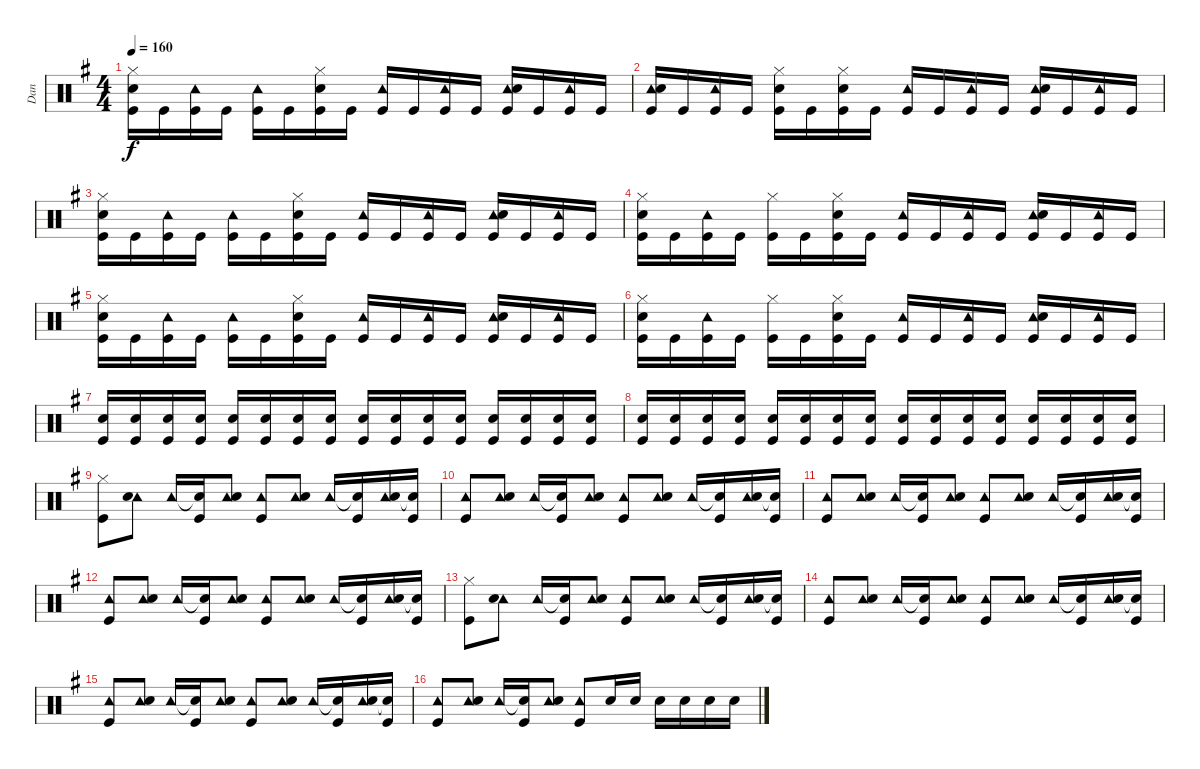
\track ("Dan" "Dan") {instrument percussion}
\staff {score}
\articulation defaults
\ts (4 4)
\tempo 160
\clef neutral
\ks g
("Hi-Hat (closed)" "Snare (hit) 2" "Kick (hit)").16{dy f} "Kick (hit)".16 ("Tambourine (hit)" "Kick (hit)").16 "Kick (hit)".16 ("Tambourine (hit)" "Kick (hit)").16 "Kick (hit)".16 ("Hi-Hat (closed)" "Snare (hit) 2" "Kick (hit)").16 "Kick (hit)".16 ("Tambourine (hit)" "Kick (hit)").16 "Kick (hit)".16 ("Tambourine (hit)" "Kick (hit)").16 "Kick (hit)".16 ("Tambourine (hit)" "Snare (hit) 2" "Kick (hit)").16 "Kick (hit)".16 ("Tambourine (hit)" "Kick (hit)").16 "Kick (hit)".16 |
("Tambourine (hit)" "Snare (hit) 2" "Kick (hit)").16 "Kick (hit)".16 ("Tambourine (hit)" "Kick (hit)").16 "Kick (hit)".16 ("Hi-Hat (closed)" "Snare (hit) 2" "Kick (hit)").16 "Kick (hit)".16 ("Hi-Hat (closed)" "Snare (hit) 2" "Kick (hit)").16 "Kick (hit)".16 ("Tambourine (hit)" "Kick (hit)").16 "Kick (hit)".16 ("Tambourine (hit)" "Kick (hit)").16 "Kick (hit)".16 ("Tambourine (hit)" "Snare (hit) 2" "Kick (hit)").16 "Kick (hit)".16 ("Tambourine (hit)" "Kick (hit)").16 "Kick (hit)".16 |
("Hi-Hat (closed)" "Snare (hit) 2" "Kick (hit)").16 "Kick (hit)".16 ("Tambourine (hit)" "Kick (hit)").16 "Kick (hit)".16 ("Tambourine (hit)" "Kick (hit)").16 "Kick (hit)".16 ("Hi-Hat (closed)" "Snare (hit) 2" "Kick (hit)").16 "Kick (hit)".16 ("Tambourine (hit)" "Kick (hit)").16 "Kick (hit)".16 ("Tambourine (hit)" "Kick (hit)").16 "Kick (hit)".16 ("Tambourine (hit)" "Snare (hit) 2" "Kick (hit)").16 "Kick (hit)".16 ("Tambourine (hit)" "Kick (hit)").16 "Kick (hit)".16 |
("Hi-Hat (closed)" "Snare (hit) 2" "Kick (hit)").16 "Kick (hit)".16 ("Tambourine (hit)" "Kick (hit)").16 "Kick (hit)".16 ("Hi-Hat (closed)" "Kick (hit)").16 "Kick (hit)".16 ("Hi-Hat (closed)" "Snare (hit) 2" "Kick (hit)").16 "Kick (hit)".16 ("Tambourine (hit)" "Kick (hit)").16 "Kick (hit)".16 ("Tambourine (hit)" "Kick (hit)").16 "Kick (hit)".16 ("Tambourine (hit)" "Snare (hit) 2" "Kick (hit)").16 "Kick (hit)".16 ("Tambourine (hit)" "Kick (hit)").16 "Kick (hit)".16 |
("Hi-Hat (closed)" "Snare (hit) 2" "Kick (hit)").16 "Kick (hit)".16 ("Tambourine (hit)" "Kick (hit)").16 "Kick (hit)".16 ("Tambourine (hit)" "Kick (hit)").16 "Kick (hit)".16 ("Hi-Hat (closed)" "Snare (hit) 2" "Kick (hit)").16 "Kick (hit)".16 ("Tambourine (hit)" "Kick (hit)").16 "Kick (hit)".16 ("Tambourine (hit)" "Kick (hit)").16 "Kick (hit)".16 ("Tambourine (hit)" "Snare (hit) 2" "Kick (hit)").16 "Kick (hit)".16 ("Tambourine (hit)" "Kick (hit)").16 "Kick (hit)".16 |
("Hi-Hat (closed)" "Snare (hit) 2" "Kick (hit)").16 "Kick (hit)".16 ("Tambourine (hit)" "Kick (hit)").16 "Kick (hit)".16 ("Hi-Hat (closed)" "Kick (hit)").16 "Kick (hit)".16 ("Hi-Hat (closed)" "Snare (hit) 2" "Kick (hit)").16 "Kick (hit)".16 ("Tambourine (hit)" "Kick (hit)").16 "Kick (hit)".16 ("Tambourine (hit)" "Kick (hit)").16 "Kick (hit)".16 ("Tambourine (hit)" "Snare (hit) 2" "Kick (hit)").16 "Kick (hit)".16 ("Tambourine (hit)" "Kick (hit)").16 "Kick (hit)".16 |
("Snare (hit) 2" "Kick (hit)").16 ("Snare (hit) 2" "Kick (hit)").16 ("Snare (hit) 2" "Kick (hit)").16 ("Snare (hit) 2" "Kick (hit)").16 ("Snare (hit) 2" "Kick (hit)").16 ("Snare (hit) 2" "Kick (hit)").16 ("Snare (hit) 2" "Kick (hit)").16 ("Snare (hit) 2" "Kick (hit)").16 ("Snare (hit) 2" "Kick (hit)").16 ("Snare (hit) 2" "Kick (hit)").16 ("Snare (hit) 2" "Kick (hit)").16 ("Snare (hit) 2" "Kick (hit)").16 ("Snare (hit) 2" "Kick (hit)").16 ("Snare (hit) 2" "Kick (hit)").16 ("Snare (hit) 2" "Kick (hit)").16 ("Snare (hit) 2" "Kick (hit)").16 |
("Snare (hit) 2" "Kick (hit)").16 ("Snare (hit) 2" "Kick (hit)").16 ("Snare (hit) 2" "Kick (hit)").16 ("Snare (hit) 2" "Kick (hit)").16 ("Snare (hit) 2" "Kick (hit)").16 ("Snare (hit) 2" "Kick (hit)").16 ("Snare (hit) 2" "Kick (hit)").16 ("Snare (hit) 2" "Kick (hit)").16 ("Snare (hit) 2" "Kick (hit)").16 ("Snare (hit) 2" "Kick (hit)").16 ("Snare (hit) 2" "Kick (hit)").16 ("Snare (hit) 2" "Kick (hit)").16 ("Snare (hit) 2" "Kick (hit)").16 ("Snare (hit) 2" "Kick (hit)").16 ("Snare (hit) 2" "Kick (hit)").16 ("Snare (hit) 2" "Kick (hit)").16 |
("Hi-Hat (closed)" "Kick (hit)").8 ("Tambourine (hit)" "Snare (hit) 2").8 "Tambourine (hit)".16 ("Snare (hit)"{t} "Kick (hit)").16 ("Tambourine (hit)" "Snare (hit) 2").8 ("Tambourine (hit)" "Kick (hit)").8 ("Tambourine (hit)" "Snare (hit) 2").8 "Tambourine (hit)".16 ("Snare (hit)"{t} "Kick (hit)").16 ("Tambourine (hit)" "Snare (hit) 2").16 ("Snare (hit)"{t} "Kick (hit)").16 |
("Tambourine (hit)" "Kick (hit)").8 ("Tambourine (hit)" "Snare (hit) 2").8 "Tambourine (hit)".16 ("Snare (hit)"{t} "Kick (hit)").16 ("Tambourine (hit)" "Snare (hit) 2").8 ("Tambourine (hit)" "Kick (hit)").8 ("Tambourine (hit)" "Snare (hit) 2").8 "Tambourine (hit)".16 ("Snare (hit)"{t} "Kick (hit)").16 ("Tambourine (hit)" "Snare (hit) 2").16 ("Snare (hit)"{t} "Kick (hit)").16 |
("Tambourine (hit)" "Kick (hit)").8 ("Tambourine (hit)" "Snare (hit) 2").8 "Tambourine (hit)".16 ("Snare (hit)"{t} "Kick (hit)").16 ("Tambourine (hit)" "Snare (hit) 2").8 ("Tambourine (hit)" "Kick (hit)").8 ("Tambourine (hit)" "Snare (hit) 2").8 "Tambourine (hit)".16 ("Snare (hit)"{t} "Kick (hit)").16 ("Tambourine (hit)" "Snare (hit) 2").16 ("Snare (hit)"{t} "Kick (hit)").16 |
("Tambourine (hit)" "Kick (hit)").8 ("Tambourine (hit)" "Snare (hit) 2").8 "Tambourine (hit)".16 ("Snare (hit)"{t} "Kick (hit)").16 ("Tambourine (hit)" "Snare (hit) 2").8 ("Tambourine (hit)" "Kick (hit)").8 ("Tambourine (hit)" "Snare (hit) 2").8 "Tambourine (hit)".16 ("Snare (hit)"{t} "Kick (hit)").16 ("Tambourine (hit)" "Snare (hit) 2").16 ("Snare (hit)"{t} "Kick (hit)").16 |
("Hi-Hat (closed)" "Kick (hit)").8 ("Tambourine (hit)" "Snare (hit) 2").8 "Tambourine (hit)".16 ("Snare (hit)"{t} "Kick (hit)").16 ("Tambourine (hit)" "Snare (hit) 2").8 ("Tambourine (hit)" "Kick (hit)").8 ("Tambourine (hit)" "Snare (hit) 2").8 "Tambourine (hit)".16 ("Snare (hit)"{t} "Kick (hit)").16 ("Tambourine (hit)" "Snare (hit) 2").16 ("Snare (hit)"{t} "Kick (hit)").16 |
("Tambourine (hit)" "Kick (hit)").8 ("Tambourine (hit)" "Snare (hit) 2").8 "Tambourine (hit)".16 ("Snare (hit)"{t} "Kick (hit)").16 ("Tambourine (hit)" "Snare (hit) 2").8 ("Tambourine (hit)" "Kick (hit)").8 ("Tambourine (hit)" "Snare (hit) 2").8 "Tambourine (hit)".16 ("Snare (hit)"{t} "Kick (hit)").16 ("Tambourine (hit)" "Snare (hit) 2").16 ("Snare (hit)"{t} "Kick (hit)").16 |
("Tambourine (hit)" "Kick (hit)").8 ("Tambourine (hit)" "Snare (hit) 2").8 "Tambourine (hit)".16 ("Snare (hit)"{t} "Kick (hit)").16 ("Tambourine (hit)" "Snare (hit) 2").8 ("Tambourine (hit)" "Kick (hit)").8 ("Tambourine (hit)" "Snare (hit) 2").8 "Tambourine (hit)".16 ("Snare (hit)"{t} "Kick (hit)").16 ("Tambourine (hit)" "Snare (hit) 2").16 ("Snare (hit)"{t} "Kick (hit)").16 |
("Tambourine (hit)" "Kick (hit)").8 ("Tambourine (hit)" "Snare (hit) 2").8 "Tambourine (hit)".16 ("Snare (hit)"{t} "Kick (hit)").16 ("Tambourine (hit)" "Snare (hit) 2").8 ("Tambourine (hit)" "Kick (hit)").8 "Snare (hit) 2".16 "Snare (hit) 2".16 "Snare (hit) 2".16 "Snare (hit) 2".16 "Snare (hit) 2".16 "Snare (hit) 2".16
